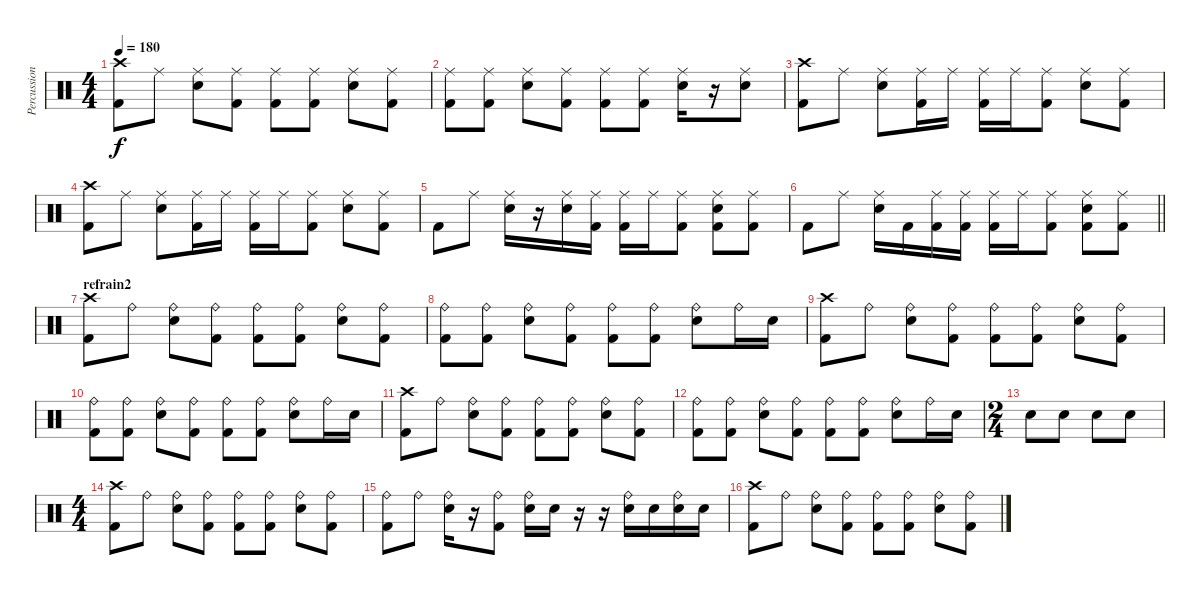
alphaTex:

\track ("Percussions" "Percussion") {instrument percussion}
\staff {score}
\articulation defaults
\ts (4 4)
\tempo 180
\clef neutral
\ks c
("Crash high (hit)" "Kick (hit) 2").8{dy f} "Ride (middle)".8 ("Ride (middle)" "Snare (hit) 2").8 ("Ride (middle)" "Kick (hit) 2").8 ("Ride (middle)" "Kick (hit) 2").8 ("Ride (middle)" "Kick (hit) 2").8 ("Ride (middle)" "Snare (hit) 2").8 ("Ride (middle)" "Kick (hit) 2").8 |
("Ride (middle)" "Kick (hit) 2").8 ("Ride (middle)" "Kick (hit) 2").8 ("Ride (middle)" "Snare (hit) 2").8 ("Ride (middle)" "Kick (hit) 2").8 ("Ride (middle)" "Kick (hit) 2").8 ("Ride (middle)" "Kick (hit) 2").8 ("Ride (middle)" "Snare (hit) 2").16 r.16 ("Ride (middle)" "Snare (hit) 2").8 |
("Crash high (hit)" "Kick (hit) 2").8 "Ride (middle)".8 ("Ride (middle)" "Snare (hit) 2").8 ("Ride (middle)" "Kick (hit) 2").16 "Ride (middle)".16 ("Ride (middle)" "Kick (hit) 2").16 "Ride (middle)".16 ("Ride (middle)" "Kick (hit) 2").8 ("Ride (middle)" "Snare (hit) 2").8 ("Ride (middle)" "Kick (hit) 2").8 |
("Crash high (hit)" "Kick (hit) 2").8 "Ride (middle)".8 ("Ride (middle)" "Snare (hit) 2").8 ("Ride (middle)" "Kick (hit) 2").16 "Ride (middle)".16 ("Ride (middle)" "Kick (hit) 2").16 "Ride (middle)".16 ("Ride (middle)" "Kick (hit) 2").8 ("Ride (middle)" "Snare (hit) 2").8 ("Ride (middle)" "Kick (hit) 2").8 |
"Kick (hit) 2".8 "Ride (middle)".8 ("Ride (middle)" "Snare (hit) 2").16 r.16 ("Ride (middle)" "Snare (hit) 2").16 ("Ride (middle)" "Kick (hit) 2").16 ("Ride (middle)" "Kick (hit) 2").16 "Ride (middle)".16 ("Ride (middle)" "Kick (hit) 2").8 ("Ride (middle)" "Snare (hit) 2" "Kick (hit) 2").8 ("Ride (middle)" "Kick (hit) 2").8 |
\barLineRight lightlight "Kick (hit) 2".8 "Ride (middle)".8
("Ride (middle)" "Snare (hit) 2").16 "Kick (hit) 2".16 ("Ride (middle)" "Kick (hit) 2").16 ("Ride (middle)" "Kick (hit) 2").16 ("Ride (middle)" "Kick (hit) 2").16 "Ride (middle)".16 ("Ride (middle)" "Kick (hit) 2").8 ("Ride (middle)" "Snare (hit) 2" "Kick (hit) 2").8 ("Ride (middle)" "Kick (hit) 2").8 |
\section ("" "refrain2")
("Crash high (hit)" "Kick (hit) 2").8 "Ride (bell)".8 ("Ride (bell)" "Snare (hit) 2").8 ("Ride (bell)" "Kick (hit) 2").8 ("Ride (bell)" "Kick (hit) 2").8 ("Ride (bell)" "Kick (hit) 2").8 ("Ride (bell)" "Snare (hit) 2").8 ("Ride (bell)" "Kick (hit) 2").8 |
("Ride (bell)" "Kick (hit) 2").8 ("Ride (bell)" "Kick (hit) 2").8 ("Ride (bell)" "Snare (hit) 2").8 ("Ride (bell)" "Kick (hit) 2").8 ("Ride (bell)" "Kick (hit) 2").8 ("Ride (bell)" "Kick (hit) 2").8 ("Ride (bell)" "Snare (hit) 2").8 "Ride (bell)".16 "Snare (hit) 2".16 |
("Crash high (hit)" "Kick (hit) 2").8 "Ride (bell)".8 ("Ride (bell)" "Snare (hit) 2").8 ("Ride (bell)" "Kick (hit) 2").8 ("Ride (bell)" "Kick (hit) 2").8 ("Ride (bell)" "Kick (hit) 2").8 ("Ride (bell)" "Snare (hit) 2").8 ("Ride (bell)" "Kick (hit) 2").8 |
("Ride (bell)" "Kick (hit) 2").8 ("Ride (bell)" "Kick (hit) 2").8 ("Ride (bell)" "Snare (hit) 2").8 ("Ride (bell)" "Kick (hit) 2").8 ("Ride (bell)" "Kick (hit) 2").8 ("Ride (bell)" "Kick (hit) 2").8 ("Ride (bell)" "Snare (hit) 2").8 "Ride (bell)".16 "Snare (hit) 2".16 |
("Crash high (hit)" "Kick (hit) 2").8 "Ride (bell)".8 ("Ride (bell)" "Snare (hit) 2").8 ("Ride (bell)" "Kick (hit) 2").8 ("Ride (bell)" "Kick (hit) 2").8 ("Ride (bell)" "Kick (hit) 2").8 ("Ride (bell)" "Snare (hit) 2").8 ("Ride (bell)" "Kick (hit) 2").8 |
("Ride (bell)" "Kick (hit) 2").8 ("Ride (bell)" "Kick (hit) 2").8 ("Ride (bell)" "Snare (hit) 2").8 ("Ride (bell)" "Kick (hit) 2").8 ("Ride (bell)" "Kick (hit) 2").8 ("Ride (bell)" "Kick (hit) 2").8 ("Ride (bell)" "Snare (hit) 2").8 "Ride (bell)".16 "Snare (hit) 2".16 |
\ts (2 4)
"Snare (hit) 2".8 "Snare (hit) 2".8 "Snare (hit) 2".8 "Snare (hit) 2".8 |
\ts (4 4)
("Crash high (hit)" "Kick (hit) 2").8 "Ride (bell)".8 ("Ride (bell)" "Snare (hit) 2").8 ("Ride (bell)" "Kick (hit) 2").8 ("Ride (bell)" "Kick (hit) 2").8 ("Ride (bell)" "Kick (hit) 2").8 ("Ride (bell)" "Snare (hit) 2").8 ("Ride (bell)" "Kick (hit) 2").8 |
("Ride (bell)" "Kick (hit) 2").8 "Ride (bell)".8 ("Ride (bell)" "Snare (hit) 2").16 r.16 ("Ride (bell)" "Kick (hit) 2").8 ("Ride (bell)" "Snare (hit) 2").16 "Snare (hit) 2".16 r.16 r.16 ("Ride (bell)" "Snare (hit) 2").16 "Snare (hit) 2".16 ("Ride (bell)" "Snare (hit) 2").16 "Snare (hit) 2".16 |
("Crash high (hit)" "Kick (hit) 2").8 "Ride (bell)".8 ("Ride (bell)" "Snare (hit) 2").8 ("Ride (bell)" "Kick (hit) 2").8 ("Ride (bell)" "Kick (hit) 2").8 ("Ride (bell)" "Kick (hit) 2").8 ("Ride (bell)" "Snare (hit) 2").8 ("Ride (bell)" "Kick (hit) 2").8
